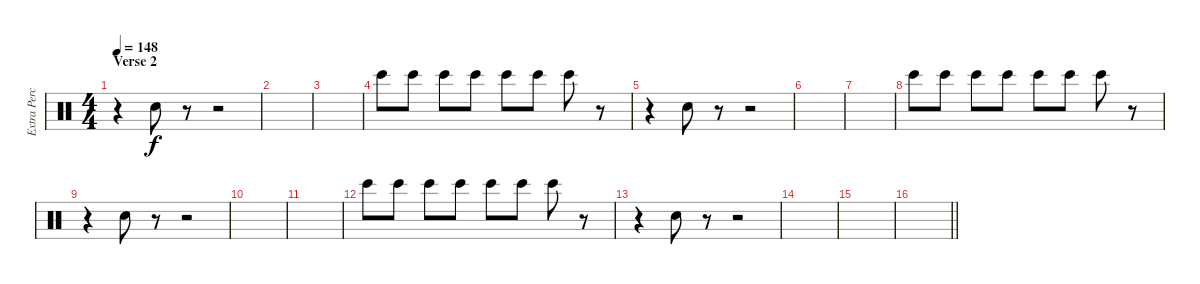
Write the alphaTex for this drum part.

\track ("Extra Percussion" "Extra Perc") {instrument percussion}
\staff {score}
\articulation defaults
\ts (4 4)
\section ("" "Verse 2")
\tempo 148
\clef neutral
\ks c
r.4{dy f} "Hand Clap (hit)".8 r.8 r.2 |
|
|
"Bongo High (hit)".8 "Bongo High (hit)".8 "Bongo High (hit)".8 "Bongo High (hit)".8 "Bongo High (hit)".8 "Bongo High (hit)".8 "Bongo High (hit)".8 r.8 |
r.4 "Hand Clap (hit)".8 r.8 r.2 |
|
|
"Bongo High (hit)".8 "Bongo High (hit)".8 "Bongo High (hit)".8 "Bongo High (hit)".8 "Bongo High (hit)".8 "Bongo High (hit)".8 "Bongo High (hit)".8 r.8 |
r.4 "Hand Clap (hit)".8 r.8 r.2 |
|
|
"Bongo High (hit)".8 "Bongo High (hit)".8 "Bongo High (hit)".8 "Bongo High (hit)".8 "Bongo High (hit)".8 "Bongo High (hit)".8 "Bongo High (hit)".8 r.8 |
r.4 "Hand Clap (hit)".8 r.8 r.2 |
|
|
\barLineRight lightlight
